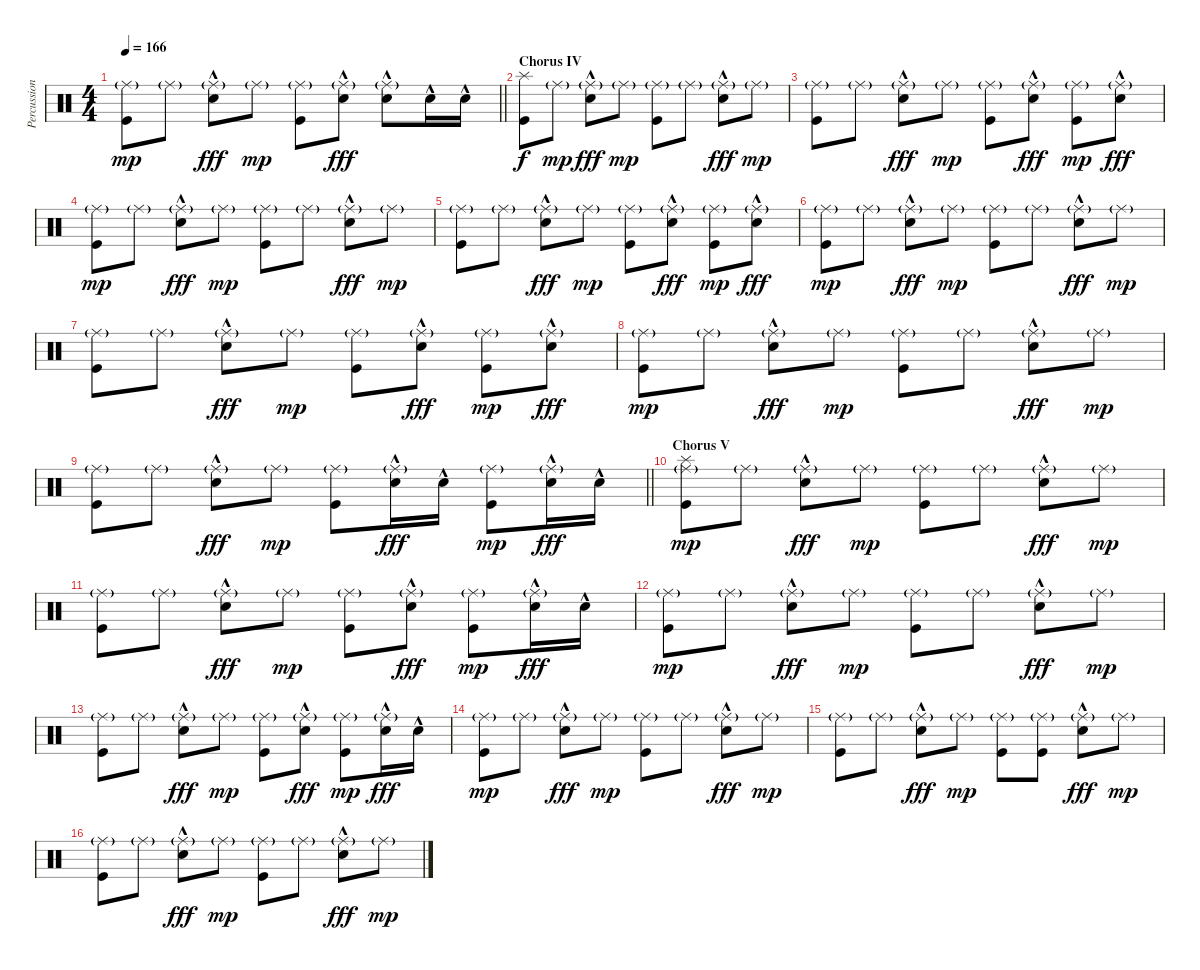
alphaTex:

\track ("Percussion" "Percussion") {instrument percussion}
\staff {score}
\articulation defaults
\ts (4 4)
\tempo 166
\clef neutral
\barLineRight lightlight
\ks c
("Ride (middle)"{g} "Kick (hit)").8{dy mp} "Ride (middle)"{g}.8 ("Ride (middle)"{g} "Snare (hit) 2"{hac}).8{dy fff} "Ride (middle)"{g}.8{dy mp} ("Ride (middle)"{g} "Kick (hit)").8 ("Ride (middle)"{g} "Snare (hit) 2"{hac}).8{dy fff} ("Ride (middle)"{g} "Snare (hit) 2"{hac}).8 "Snare (hit) 2"{hac}.16 "Snare (hit) 2"{hac}.16 |
\section ("" "Chorus IV")
("Splash (hit)" "Kick (hit)").8{dy f} "Ride (middle)"{g}.8{dy mp} ("Ride (middle)"{g} "Snare (hit) 2"{hac}).8{dy fff} "Ride (middle)"{g}.8{dy mp} ("Ride (middle)"{g} "Kick (hit)").8 "Ride (middle)"{g}.8 ("Ride (middle)"{g} "Snare (hit) 2"{hac}).8{dy fff} "Ride (middle)"{g}.8{dy mp} |
("Ride (middle)"{g} "Kick (hit)").8 "Ride (middle)"{g}.8 ("Ride (middle)"{g} "Snare (hit) 2"{hac}).8{dy fff} "Ride (middle)"{g}.8{dy mp} ("Ride (middle)"{g} "Kick (hit)").8 ("Ride (middle)"{g} "Snare (hit) 2"{hac}).8{dy fff} ("Ride (middle)"{g} "Kick (hit)").8{dy mp} ("Ride (middle)"{g} "Snare (hit) 2"{hac}).8{dy fff} |
("Ride (middle)"{g} "Kick (hit)").8{dy mp} "Ride (middle)"{g}.8 ("Ride (middle)"{g} "Snare (hit) 2"{hac}).8{dy fff} "Ride (middle)"{g}.8{dy mp} ("Ride (middle)"{g} "Kick (hit)").8 "Ride (middle)"{g}.8 ("Ride (middle)"{g} "Snare (hit) 2"{hac}).8{dy fff} "Ride (middle)"{g}.8{dy mp} |
("Ride (middle)"{g} "Kick (hit)").8 "Ride (middle)"{g}.8 ("Ride (middle)"{g} "Snare (hit) 2"{hac}).8{dy fff} "Ride (middle)"{g}.8{dy mp} ("Ride (middle)"{g} "Kick (hit)").8 ("Ride (middle)"{g} "Snare (hit) 2"{hac}).8{dy fff} ("Ride (middle)"{g} "Kick (hit)").8{dy mp} ("Ride (middle)"{g} "Snare (hit) 2"{hac}).8{dy fff} |
("Ride (middle)"{g} "Kick (hit)").8{dy mp} "Ride (middle)"{g}.8 ("Ride (middle)"{g} "Snare (hit) 2"{hac}).8{dy fff} "Ride (middle)"{g}.8{dy mp} ("Ride (middle)"{g} "Kick (hit)").8 "Ride (middle)"{g}.8 ("Ride (middle)"{g} "Snare (hit) 2"{hac}).8{dy fff} "Ride (middle)"{g}.8{dy mp} |
("Ride (middle)"{g} "Kick (hit)").8 "Ride (middle)"{g}.8 ("Ride (middle)"{g} "Snare (hit) 2"{hac}).8{dy fff} "Ride (middle)"{g}.8{dy mp} ("Ride (middle)"{g} "Kick (hit)").8 ("Ride (middle)"{g} "Snare (hit) 2"{hac}).8{dy fff} ("Ride (middle)"{g} "Kick (hit)").8{dy mp} ("Ride (middle)"{g} "Snare (hit) 2"{hac}).8{dy fff} |
("Ride (middle)"{g} "Kick (hit)").8{dy mp} "Ride (middle)"{g}.8 ("Ride (middle)"{g} "Snare (hit) 2"{hac}).8{dy fff} "Ride (middle)"{g}.8{dy mp} ("Ride (middle)"{g} "Kick (hit)").8 "Ride (middle)"{g}.8 ("Ride (middle)"{g} "Snare (hit) 2"{hac}).8{dy fff} "Ride (middle)"{g}.8{dy mp} |
\barLineRight lightlight
("Ride (middle)"{g} "Kick (hit)").8 "Ride (middle)"{g}.8 ("Ride (middle)"{g} "Snare (hit) 2"{hac}).8{dy fff} "Ride (middle)"{g}.8{dy mp} ("Ride (middle)"{g} "Kick (hit)").8 ("Ride (middle)"{g} "Snare (hit) 2"{hac}).16{dy fff} "Snare (hit) 2"{hac}.16 ("Ride (middle)"{g} "Kick (hit)").8{dy mp} ("Ride (middle)"{g} "Snare (hit) 2"{hac}).16{dy fff} "Snare (hit) 2"{hac}.16 |
\section ("" "Chorus V")
("Splash (hit)" "Ride (middle)"{g} "Kick (hit)").8{dy mp} "Ride (middle)"{g}.8 ("Ride (middle)"{g} "Snare (hit) 2"{hac}).8{dy fff} "Ride (middle)"{g}.8{dy mp} ("Ride (middle)"{g} "Kick (hit)").8 "Ride (middle)"{g}.8 ("Ride (middle)"{g} "Snare (hit) 2"{hac}).8{dy fff} "Ride (middle)"{g}.8{dy mp} |
("Ride (middle)"{g} "Kick (hit)").8 "Ride (middle)"{g}.8 ("Ride (middle)"{g} "Snare (hit) 2"{hac}).8{dy fff} "Ride (middle)"{g}.8{dy mp} ("Ride (middle)"{g} "Kick (hit)").8 ("Ride (middle)"{g} "Snare (hit) 2"{hac}).8{dy fff} ("Ride (middle)"{g} "Kick (hit)").8{dy mp} ("Ride (middle)"{g} "Snare (hit) 2"{hac}).16{dy fff} "Snare (hit) 2"{hac}.16 |
("Ride (middle)"{g} "Kick (hit)").8{dy mp} "Ride (middle)"{g}.8 ("Ride (middle)"{g} "Snare (hit) 2"{hac}).8{dy fff} "Ride (middle)"{g}.8{dy mp} ("Ride (middle)"{g} "Kick (hit)").8 "Ride (middle)"{g}.8 ("Ride (middle)"{g} "Snare (hit) 2"{hac}).8{dy fff} "Ride (middle)"{g}.8{dy mp} |
("Ride (middle)"{g} "Kick (hit)").8 "Ride (middle)"{g}.8 ("Ride (middle)"{g} "Snare (hit) 2"{hac}).8{dy fff} "Ride (middle)"{g}.8{dy mp} ("Ride (middle)"{g} "Kick (hit)").8 ("Ride (middle)"{g} "Snare (hit) 2"{hac}).8{dy fff} ("Ride (middle)"{g} "Kick (hit)").8{dy mp} ("Ride (middle)"{g} "Snare (hit) 2"{hac}).16{dy fff} "Snare (hit) 2"{hac}.16 |
("Ride (middle)"{g} "Kick (hit)").8{dy mp} "Ride (middle)"{g}.8 ("Ride (middle)"{g} "Snare (hit) 2"{hac}).8{dy fff} "Ride (middle)"{g}.8{dy mp} ("Ride (middle)"{g} "Kick (hit)").8 "Ride (middle)"{g}.8 ("Ride (middle)"{g} "Snare (hit) 2"{hac}).8{dy fff} "Ride (middle)"{g}.8{dy mp} |
("Ride (middle)"{g} "Kick (hit)").8 "Ride (middle)"{g}.8 ("Ride (middle)"{g} "Snare (hit) 2"{hac}).8{dy fff} "Ride (middle)"{g}.8{dy mp} ("Ride (middle)"{g} "Kick (hit)").8 ("Ride (middle)"{g} "Kick (hit)").8 ("Ride (middle)"{g} "Snare (hit) 2"{hac}).8{dy fff} "Ride (middle)"{g}.8{dy mp} |
("Ride (middle)"{g} "Kick (hit)").8 "Ride (middle)"{g}.8 ("Ride (middle)"{g} "Snare (hit) 2"{hac}).8{dy fff} "Ride (middle)"{g}.8{dy mp} ("Ride (middle)"{g} "Kick (hit)").8 "Ride (middle)"{g}.8 ("Ride (middle)"{g} "Snare (hit) 2"{hac}).8{dy fff} "Ride (middle)"{g}.8{dy mp}
